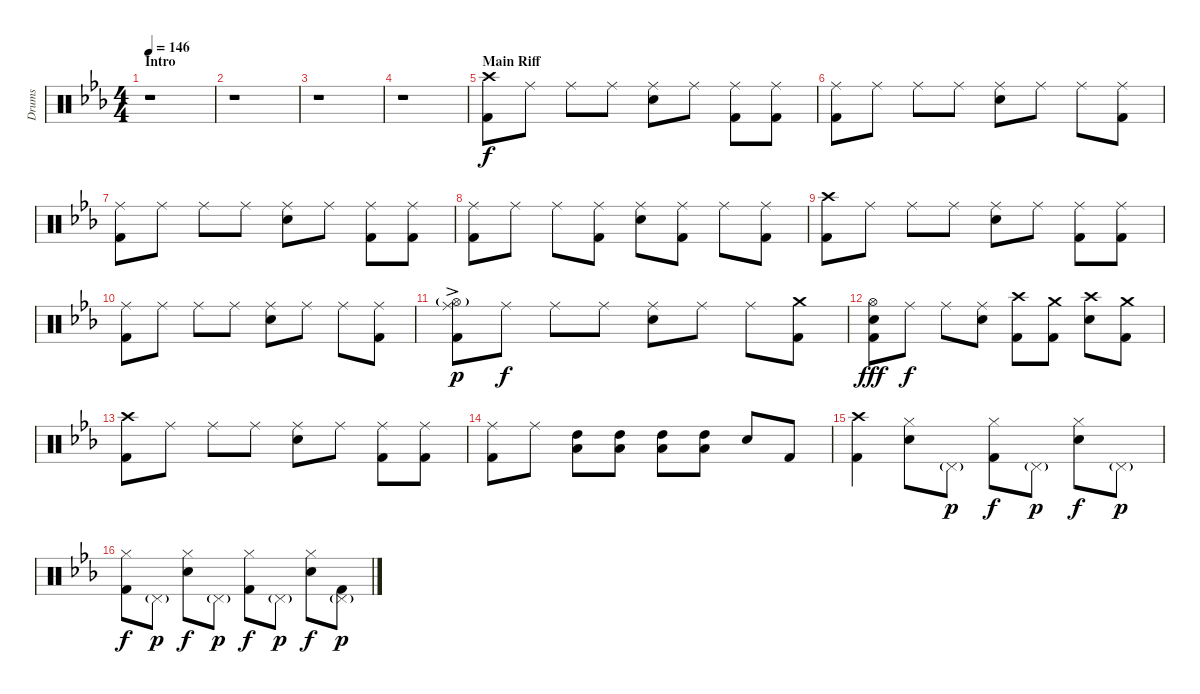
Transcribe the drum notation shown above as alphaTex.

\track ("Drums" "Drums") {instrument percussion}
\staff {score}
\articulation defaults
\ts (4 4)
\section ("" "Intro")
\tempo 146
\clef neutral
\ks eb
r.1{dy f} |
r.1 |
r.1 |
r.1 |
\section ("" "Main Riff")
("Crash high (hit)" "Kick (hit) 2").8 "Ride (middle)".8 "Ride (middle)".8 "Ride (middle)".8 ("Ride (middle)" "Electric Snare (hit)").8 "Ride (middle)".8 ("Ride (middle)" "Kick (hit) 2").8 ("Ride (middle)" "Kick (hit) 2").8 |
("Ride (middle)" "Kick (hit) 2").8 "Ride (middle)".8 "Ride (middle)".8 "Ride (middle)".8 ("Ride (middle)" "Electric Snare (hit)").8 "Ride (middle)".8 "Ride (middle)".8 ("Ride (middle)" "Kick (hit) 2").8 |
("Ride (middle)" "Kick (hit) 2").8 "Ride (middle)".8 "Ride (middle)".8 "Ride (middle)".8 ("Ride (middle)" "Electric Snare (hit)").8 "Ride (middle)".8 ("Ride (middle)" "Kick (hit) 2").8 ("Ride (middle)" "Kick (hit) 2").8 |
("Ride (middle)" "Kick (hit) 2").8 "Ride (middle)".8 "Ride (middle)".8 ("Ride (middle)" "Kick (hit) 2").8 ("Ride (middle)" "Electric Snare (hit)").8 ("Ride (middle)" "Kick (hit) 2").8 "Ride (middle)".8 ("Ride (middle)" "Kick (hit) 2").8 |
("Crash high (hit)" "Kick (hit) 2").8 "Ride (middle)".8 "Ride (middle)".8 "Ride (middle)".8 ("Ride (middle)" "Electric Snare (hit)").8 "Ride (middle)".8 ("Ride (middle)" "Kick (hit) 2").8 ("Ride (middle)" "Kick (hit) 2").8 |
("Ride (middle)" "Kick (hit) 2").8 "Ride (middle)".8 "Ride (middle)".8 "Ride (middle)".8 ("Ride (middle)" "Electric Snare (hit)").8 "Ride (middle)".8 "Ride (middle)".8 ("Ride (middle)" "Kick (hit) 2").8 |
("Ride (middle)"{ac} "Hi-Hat (open)"{g} "Kick (hit) 2").8{dy p} "Ride (middle)".8{dy f} "Ride (middle)".8 "Ride (middle)".8 ("Ride (middle)" "Electric Snare (hit)").8 "Ride (middle)".8 "Ride (middle)".8 ("Crash medium (hit)" "Kick (hit) 2").8 |
("Hi-Hat (open)" "Kick (hit) 2" "Electric Snare (hit)").8{dy fff} "Ride (middle)".8{dy f} "Ride (middle)".8 ("Ride (middle)" "Electric Snare (hit)").8 ("Crash high (hit)" "Kick (hit) 2").8 ("Crash medium (hit)" "Kick (hit) 2").8 ("Crash high (hit)" "Electric Snare (hit)").8 ("Crash medium (hit)" "Kick (hit) 2").8 |
("Crash high (hit)" "Kick (hit) 2").8 "Ride (middle)".8 "Ride (middle)".8 "Ride (middle)".8 ("Ride (middle)" "Electric Snare (hit)").8 "Ride (middle)".8 ("Ride (middle)" "Kick (hit) 2").8 ("Ride (middle)" "Kick (hit) 2").8 |
("Ride (middle)" "Kick (hit) 2").8 "Ride (middle)".8 ("High Tom (hit)" "Low Tom (hit)").8 ("High Tom (hit)" "Low Tom (hit)").8 ("High Tom (hit)" "Low Tom (hit)").8 ("High Tom (hit)" "Low Tom (hit)").8 "Electric Snare (hit)".8 "Kick (hit) 2".8 |
("Crash high (hit)" "Kick (hit) 2").4 ("Hi-Hat (closed)" "Electric Snare (hit)").8 "Pedal Hi-Hat (hit)"{g}.8{dy p} ("Hi-Hat (closed)" "Kick (hit) 2").8{dy f} "Pedal Hi-Hat (hit)"{g}.8{dy p} ("Hi-Hat (closed)" "Electric Snare (hit)").8{dy f} "Pedal Hi-Hat (hit)"{g}.8{dy p} |
("Hi-Hat (closed)" "Kick (hit) 2").8{dy f} "Pedal Hi-Hat (hit)"{g}.8{dy p} ("Hi-Hat (closed)" "Electric Snare (hit)").8{dy f} "Pedal Hi-Hat (hit)"{g}.8{dy p} ("Hi-Hat (closed)" "Kick (hit) 2").8{dy f} "Pedal Hi-Hat (hit)"{g}.8{dy p} ("Hi-Hat (closed)" "Electric Snare (hit)").8{dy f} ("Pedal Hi-Hat (hit)"{g} "Kick (hit) 2").8{dy p}
